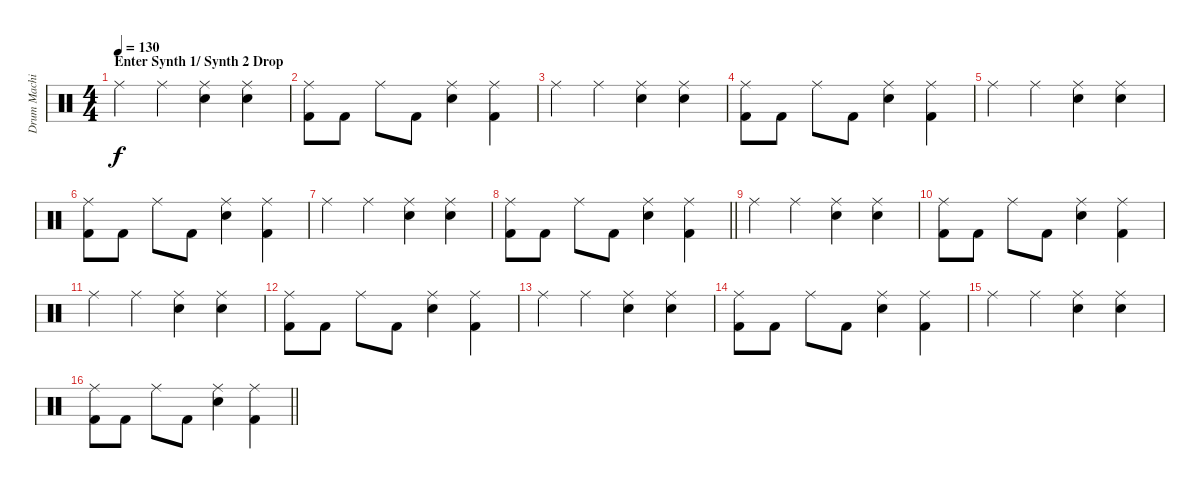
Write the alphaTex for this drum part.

\track ("Drum Machine" "Drum Machi") {instrument percussion}
\staff {score}
\articulation defaults
\ts (4 4)
\section ("" "Enter Synth 1/ Synth 2 Drop")
\tempo 130
\clef neutral
\ks c "Ride (middle)".4{dy f} "Ride (middle)".4
("Electric Snare (hit)" "Ride (middle)").4 ("Electric Snare (hit)" "Ride (middle)").4 |
("Kick (hit) 2" "Ride (middle)").8 "Kick (hit) 2".8 "Ride (middle)".8 "Kick (hit) 2".8 ("Electric Snare (hit)" "Ride (middle)").4 ("Kick (hit) 2" "Ride (middle)").4 |
"Ride (middle)".4 "Ride (middle)".4 ("Electric Snare (hit)" "Ride (middle)").4 ("Electric Snare (hit)" "Ride (middle)").4 |
("Kick (hit) 2" "Ride (middle)").8 "Kick (hit) 2".8 "Ride (middle)".8 "Kick (hit) 2".8 ("Electric Snare (hit)" "Ride (middle)").4 ("Kick (hit) 2" "Ride (middle)").4 |
"Ride (middle)".4 "Ride (middle)".4 ("Electric Snare (hit)" "Ride (middle)").4 ("Electric Snare (hit)" "Ride (middle)").4 |
("Kick (hit) 2" "Ride (middle)").8 "Kick (hit) 2".8 "Ride (middle)".8 "Kick (hit) 2".8 ("Electric Snare (hit)" "Ride (middle)").4 ("Kick (hit) 2" "Ride (middle)").4 |
"Ride (middle)".4 "Ride (middle)".4 ("Electric Snare (hit)" "Ride (middle)").4 ("Electric Snare (hit)" "Ride (middle)").4 |
\barLineRight lightlight
("Kick (hit) 2" "Ride (middle)").8 "Kick (hit) 2".8 "Ride (middle)".8 "Kick (hit) 2".8 ("Electric Snare (hit)" "Ride (middle)").4 ("Kick (hit) 2" "Ride (middle)").4 |
"Ride (middle)".4 "Ride (middle)".4 ("Electric Snare (hit)" "Ride (middle)").4 ("Electric Snare (hit)" "Ride (middle)").4 |
("Kick (hit) 2" "Ride (middle)").8 "Kick (hit) 2".8 "Ride (middle)".8 "Kick (hit) 2".8 ("Electric Snare (hit)" "Ride (middle)").4 ("Kick (hit) 2" "Ride (middle)").4 |
"Ride (middle)".4 "Ride (middle)".4 ("Electric Snare (hit)" "Ride (middle)").4 ("Electric Snare (hit)" "Ride (middle)").4 |
("Kick (hit) 2" "Ride (middle)").8 "Kick (hit) 2".8 "Ride (middle)".8 "Kick (hit) 2".8 ("Electric Snare (hit)" "Ride (middle)").4 ("Kick (hit) 2" "Ride (middle)").4 |
"Ride (middle)".4 "Ride (middle)".4 ("Electric Snare (hit)" "Ride (middle)").4 ("Electric Snare (hit)" "Ride (middle)").4 |
("Kick (hit) 2" "Ride (middle)").8 "Kick (hit) 2".8 "Ride (middle)".8 "Kick (hit) 2".8 ("Electric Snare (hit)" "Ride (middle)").4 ("Kick (hit) 2" "Ride (middle)").4 |
"Ride (middle)".4 "Ride (middle)".4 ("Electric Snare (hit)" "Ride (middle)").4 ("Electric Snare (hit)" "Ride (middle)").4 |
\barLineRight lightlight
("Kick (hit) 2" "Ride (middle)").8 "Kick (hit) 2".8 "Ride (middle)".8 "Kick (hit) 2".8 ("Electric Snare (hit)" "Ride (middle)").4 ("Kick (hit) 2" "Ride (middle)").4
